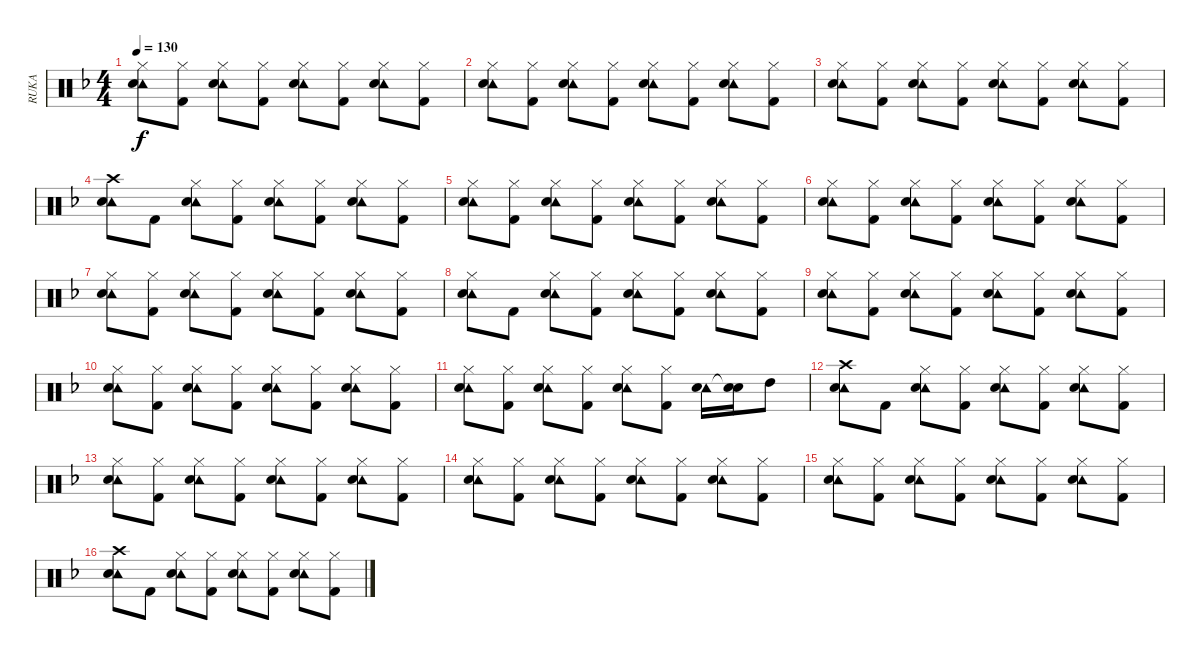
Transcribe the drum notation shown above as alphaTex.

\track ("RUKA" "RUKA") {instrument percussion}
\staff {score}
\articulation defaults
\ts (4 4)
\tempo 130
\clef neutral
\ks f
("Hi-Hat (closed)" "Tambourine (hit)" "Snare (hit) 2").8{dy f} ("Hi-Hat (closed)" "Kick (hit) 2").8 ("Hi-Hat (closed)" "Tambourine (hit)" "Snare (hit) 2").8 ("Hi-Hat (closed)" "Kick (hit) 2").8 ("Hi-Hat (closed)" "Tambourine (hit)" "Snare (hit) 2").8 ("Hi-Hat (closed)" "Kick (hit) 2").8 ("Hi-Hat (closed)" "Tambourine (hit)" "Snare (hit) 2").8 ("Hi-Hat (closed)" "Kick (hit) 2").8 |
("Hi-Hat (closed)" "Tambourine (hit)" "Snare (hit) 2").8 ("Hi-Hat (closed)" "Kick (hit) 2").8 ("Hi-Hat (closed)" "Tambourine (hit)" "Snare (hit) 2").8 ("Hi-Hat (closed)" "Kick (hit) 2").8 ("Hi-Hat (closed)" "Tambourine (hit)" "Snare (hit) 2").8 ("Hi-Hat (closed)" "Kick (hit) 2").8 ("Hi-Hat (closed)" "Tambourine (hit)" "Snare (hit) 2").8 ("Hi-Hat (closed)" "Kick (hit) 2").8 |
("Hi-Hat (closed)" "Tambourine (hit)" "Snare (hit) 2").8 ("Hi-Hat (closed)" "Kick (hit) 2").8 ("Hi-Hat (closed)" "Tambourine (hit)" "Snare (hit) 2").8 ("Hi-Hat (closed)" "Kick (hit) 2").8 ("Hi-Hat (closed)" "Tambourine (hit)" "Snare (hit) 2").8 ("Hi-Hat (closed)" "Kick (hit) 2").8 ("Hi-Hat (closed)" "Tambourine (hit)" "Snare (hit) 2").8 ("Hi-Hat (closed)" "Kick (hit) 2").8 |
("Crash high (hit)" "Tambourine (hit)" "Snare (hit) 2").8 "Kick (hit) 2".8 ("Hi-Hat (closed)" "Tambourine (hit)" "Snare (hit) 2").8 ("Hi-Hat (closed)" "Kick (hit) 2").8 ("Hi-Hat (closed)" "Tambourine (hit)" "Snare (hit) 2").8 ("Hi-Hat (closed)" "Kick (hit) 2").8 ("Hi-Hat (closed)" "Tambourine (hit)" "Snare (hit) 2").8 ("Hi-Hat (closed)" "Kick (hit) 2").8 |
("Hi-Hat (closed)" "Tambourine (hit)" "Snare (hit) 2").8 ("Hi-Hat (closed)" "Kick (hit) 2").8 ("Hi-Hat (closed)" "Tambourine (hit)" "Snare (hit) 2").8 ("Hi-Hat (closed)" "Kick (hit) 2").8 ("Hi-Hat (closed)" "Tambourine (hit)" "Snare (hit) 2").8 ("Hi-Hat (closed)" "Kick (hit) 2").8 ("Hi-Hat (closed)" "Tambourine (hit)" "Snare (hit) 2").8 ("Hi-Hat (closed)" "Kick (hit) 2").8 |
("Hi-Hat (closed)" "Tambourine (hit)" "Snare (hit) 2").8 ("Hi-Hat (closed)" "Kick (hit) 2").8 ("Hi-Hat (closed)" "Tambourine (hit)" "Snare (hit) 2").8 ("Hi-Hat (closed)" "Kick (hit) 2").8 ("Hi-Hat (closed)" "Tambourine (hit)" "Snare (hit) 2").8 ("Hi-Hat (closed)" "Kick (hit) 2").8 ("Hi-Hat (closed)" "Tambourine (hit)" "Snare (hit) 2").8 ("Hi-Hat (closed)" "Kick (hit) 2").8 |
("Hi-Hat (closed)" "Tambourine (hit)" "Snare (hit) 2").8 ("Hi-Hat (closed)" "Kick (hit) 2").8 ("Hi-Hat (closed)" "Tambourine (hit)" "Snare (hit) 2").8 ("Hi-Hat (closed)" "Kick (hit) 2").8 ("Hi-Hat (closed)" "Tambourine (hit)" "Snare (hit) 2").8 ("Hi-Hat (closed)" "Kick (hit) 2").8 ("Hi-Hat (closed)" "Tambourine (hit)" "Snare (hit) 2").8 ("Hi-Hat (closed)" "Kick (hit) 2").8 |
("Hi-Hat (closed)" "Tambourine (hit)" "Snare (hit) 2").8 "Kick (hit) 2".8 ("Hi-Hat (closed)" "Tambourine (hit)" "Snare (hit) 2").8 ("Hi-Hat (closed)" "Kick (hit) 2").8 ("Hi-Hat (closed)" "Tambourine (hit)" "Snare (hit) 2").8 ("Hi-Hat (closed)" "Kick (hit) 2").8 ("Hi-Hat (closed)" "Tambourine (hit)" "Snare (hit) 2").8 ("Hi-Hat (closed)" "Kick (hit) 2").8 |
("Hi-Hat (closed)" "Tambourine (hit)" "Snare (hit) 2").8 ("Hi-Hat (closed)" "Kick (hit) 2").8 ("Hi-Hat (closed)" "Tambourine (hit)" "Snare (hit) 2").8 ("Hi-Hat (closed)" "Kick (hit) 2").8 ("Hi-Hat (closed)" "Tambourine (hit)" "Snare (hit) 2").8 ("Hi-Hat (closed)" "Kick (hit) 2").8 ("Hi-Hat (closed)" "Tambourine (hit)" "Snare (hit) 2").8 ("Hi-Hat (closed)" "Kick (hit) 2").8 |
("Hi-Hat (closed)" "Tambourine (hit)" "Snare (hit) 2").8 ("Hi-Hat (closed)" "Kick (hit) 2").8 ("Hi-Hat (closed)" "Tambourine (hit)" "Snare (hit) 2").8 ("Hi-Hat (closed)" "Kick (hit) 2").8 ("Hi-Hat (closed)" "Tambourine (hit)" "Snare (hit) 2").8 ("Hi-Hat (closed)" "Kick (hit) 2").8 ("Hi-Hat (closed)" "Tambourine (hit)" "Snare (hit) 2").8 ("Hi-Hat (closed)" "Kick (hit) 2").8 |
("Hi-Hat (closed)" "Tambourine (hit)" "Snare (hit) 2").8 ("Hi-Hat (closed)" "Kick (hit) 2").8 ("Hi-Hat (closed)" "Tambourine (hit)" "Snare (hit) 2").8 ("Hi-Hat (closed)" "Kick (hit) 2").8 ("Hi-Hat (closed)" "Tambourine (hit)" "Snare (hit) 2").8 ("Hi-Hat (closed)" "Kick (hit) 2").8 ("Tambourine (hit)" "Snare (hit) 2").16 ("Snare (hit)"{t} "Snare (hit) 2").16 "High Tom (hit)".8 |
("Crash high (hit)" "Tambourine (hit)" "Snare (hit) 2").8 "Kick (hit) 2".8 ("Hi-Hat (closed)" "Tambourine (hit)" "Snare (hit) 2").8 ("Hi-Hat (closed)" "Kick (hit) 2").8 ("Hi-Hat (closed)" "Tambourine (hit)" "Snare (hit) 2").8 ("Hi-Hat (closed)" "Kick (hit) 2").8 ("Hi-Hat (closed)" "Tambourine (hit)" "Snare (hit) 2").8 ("Hi-Hat (closed)" "Kick (hit) 2").8 |
("Hi-Hat (closed)" "Tambourine (hit)" "Snare (hit) 2").8 ("Hi-Hat (closed)" "Kick (hit) 2").8 ("Hi-Hat (closed)" "Tambourine (hit)" "Snare (hit) 2").8 ("Hi-Hat (closed)" "Kick (hit) 2").8 ("Hi-Hat (closed)" "Tambourine (hit)" "Snare (hit) 2").8 ("Hi-Hat (closed)" "Kick (hit) 2").8 ("Hi-Hat (closed)" "Tambourine (hit)" "Snare (hit) 2").8 ("Hi-Hat (closed)" "Kick (hit) 2").8 |
("Hi-Hat (closed)" "Tambourine (hit)" "Snare (hit) 2").8 ("Hi-Hat (closed)" "Kick (hit) 2").8 ("Hi-Hat (closed)" "Tambourine (hit)" "Snare (hit) 2").8 ("Hi-Hat (closed)" "Kick (hit) 2").8 ("Hi-Hat (closed)" "Tambourine (hit)" "Snare (hit) 2").8 ("Hi-Hat (closed)" "Kick (hit) 2").8 ("Hi-Hat (closed)" "Tambourine (hit)" "Snare (hit) 2").8 ("Hi-Hat (closed)" "Kick (hit) 2").8 |
("Hi-Hat (closed)" "Tambourine (hit)" "Snare (hit) 2").8 ("Hi-Hat (closed)" "Kick (hit) 2").8 ("Hi-Hat (closed)" "Tambourine (hit)" "Snare (hit) 2").8 ("Hi-Hat (closed)" "Kick (hit) 2").8 ("Hi-Hat (closed)" "Tambourine (hit)" "Snare (hit) 2").8 ("Hi-Hat (closed)" "Kick (hit) 2").8 ("Hi-Hat (closed)" "Tambourine (hit)" "Snare (hit) 2").8 ("Hi-Hat (closed)" "Kick (hit) 2").8 |
("Crash high (hit)" "Tambourine (hit)" "Snare (hit) 2").8 "Kick (hit) 2".8 ("Hi-Hat (closed)" "Tambourine (hit)" "Snare (hit) 2").8 ("Hi-Hat (closed)" "Kick (hit) 2").8 ("Hi-Hat (closed)" "Tambourine (hit)" "Snare (hit) 2").8 ("Hi-Hat (closed)" "Kick (hit) 2").8 ("Hi-Hat (closed)" "Tambourine (hit)" "Snare (hit) 2").8 ("Hi-Hat (closed)" "Kick (hit) 2").8
